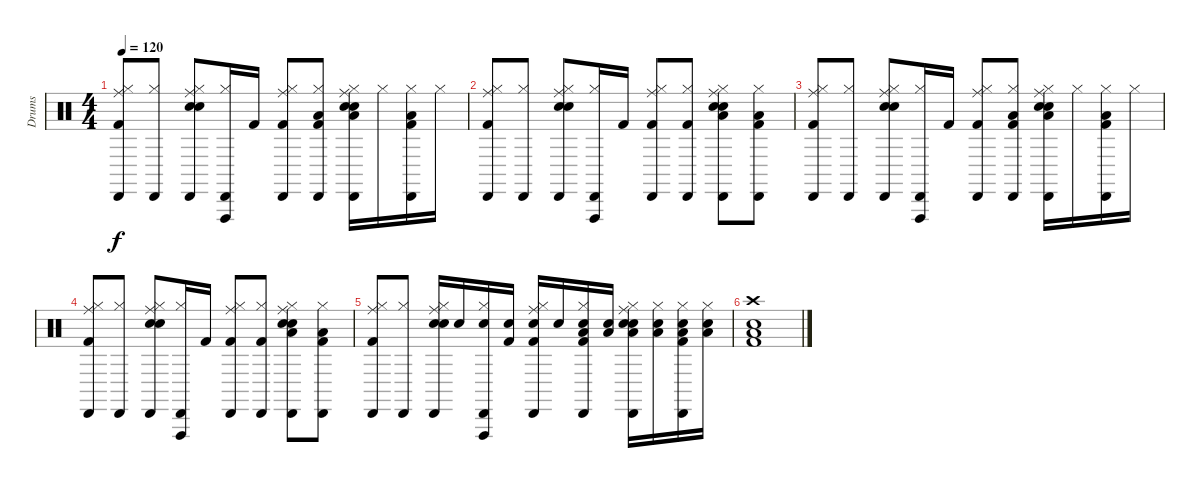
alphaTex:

\track ("Drums" "Drums") {instrument percussion}
\staff {score}
\articulation defaults
\ts (4 4)
\tempo 120
\clef neutral
\ks c
("Kick (hit) 2" "Hi-Hat (closed)" "Ride (middle)" "Cabasa (hit)").8{dy f} ("Hi-Hat (closed)" "Cabasa (hit)").8 ("Snare (hit) 2" "Hi-Hat (closed)" "Ride (middle)" "Cabasa (hit)" "Hand Clap (hit)").8 ("Hi-Hat (closed)" "Cabasa (hit)" "Vibraslap (hit)").16 "Kick (hit) 2".16 ("Kick (hit) 2" "Hi-Hat (closed)" "Ride (middle)" "Cabasa (hit)").8 ("Kick (hit) 2" "Hi-Hat (closed)" "Low Tom (hit)" "Cabasa (hit)").8 ("Snare (hit) 2" "Hi-Hat (closed)" "Ride (middle)" "Low Tom (hit)" "Cabasa (hit)" "Hand Clap (hit)").16 "Hi-Hat (closed)".16 ("Kick (hit) 2" "Hi-Hat (closed)" "Low Tom (hit)" "Cabasa (hit)").16 "Hi-Hat (closed)".16 |
("Kick (hit) 2" "Hi-Hat (closed)" "Ride (middle)" "Cabasa (hit)").8 ("Hi-Hat (closed)" "Cabasa (hit)").8 ("Snare (hit) 2" "Hi-Hat (closed)" "Ride (middle)" "Cabasa (hit)" "Hand Clap (hit)").8 ("Hi-Hat (closed)" "Cabasa (hit)" "Vibraslap (hit)").16 "Kick (hit) 2".16 ("Kick (hit) 2" "Hi-Hat (closed)" "Ride (middle)" "Cabasa (hit)").8 ("Kick (hit) 2" "Hi-Hat (closed)" "Cabasa (hit)").8 ("Snare (hit) 2" "Hi-Hat (closed)" "Ride (middle)" "Low Tom (hit)" "Cabasa (hit)" "Hand Clap (hit)").8 ("Kick (hit) 2" "Hi-Hat (closed)" "Low Tom (hit)" "Cabasa (hit)").8 |
("Kick (hit) 2" "Hi-Hat (closed)" "Ride (middle)" "Cabasa (hit)").8 ("Hi-Hat (closed)" "Cabasa (hit)").8 ("Snare (hit) 2" "Hi-Hat (closed)" "Ride (middle)" "Cabasa (hit)" "Hand Clap (hit)").8 ("Hi-Hat (closed)" "Cabasa (hit)" "Vibraslap (hit)").16 "Kick (hit) 2".16 ("Kick (hit) 2" "Hi-Hat (closed)" "Ride (middle)" "Cabasa (hit)").8 ("Kick (hit) 2" "Hi-Hat (closed)" "Low Tom (hit)" "Cabasa (hit)").8 ("Snare (hit) 2" "Hi-Hat (closed)" "Ride (middle)" "Low Tom (hit)" "Cabasa (hit)" "Hand Clap (hit)").16 "Hi-Hat (closed)".16 ("Kick (hit) 2" "Hi-Hat (closed)" "Low Tom (hit)" "Cabasa (hit)").16 "Hi-Hat (closed)".16 |
("Kick (hit) 2" "Hi-Hat (closed)" "Ride (middle)" "Cabasa (hit)").8 ("Hi-Hat (closed)" "Cabasa (hit)").8 ("Snare (hit) 2" "Hi-Hat (closed)" "Ride (middle)" "Cabasa (hit)" "Hand Clap (hit)").8 ("Hi-Hat (closed)" "Cabasa (hit)" "Vibraslap (hit)").16 "Kick (hit) 2".16 ("Kick (hit) 2" "Hi-Hat (closed)" "Ride (middle)" "Cabasa (hit)").8 ("Kick (hit) 2" "Hi-Hat (closed)" "Cabasa (hit)").8 ("Snare (hit) 2" "Hi-Hat (closed)" "Ride (middle)" "Low Tom (hit)" "Cabasa (hit)" "Hand Clap (hit)").8 ("Kick (hit) 2" "Hi-Hat (closed)" "Low Tom (hit)" "Cabasa (hit)").8 |
("Kick (hit) 2" "Hi-Hat (closed)" "Ride (middle)" "Cabasa (hit)").8 ("Hi-Hat (closed)" "Cabasa (hit)").8 ("Snare (hit) 2" "Hi-Hat (closed)" "Ride (middle)" "Cabasa (hit)" "Hand Clap (hit)").16 "Snare (hit) 2".16 ("Snare (hit) 2" "Hi-Hat (closed)" "Cabasa (hit)" "Vibraslap (hit)").16 ("Kick (hit) 2" "Snare (hit) 2").16 ("Kick (hit) 2" "Snare (hit) 2" "Hi-Hat (closed)" "Ride (middle)" "Cabasa (hit)").16 "Snare (hit) 2".16 ("Kick (hit) 2" "Snare (hit) 2" "Hi-Hat (closed)" "Low Tom (hit)" "Cabasa (hit)").16 ("Snare (hit) 2" "Low Tom (hit)").16 ("Snare (hit) 2" "Hi-Hat (closed)" "Ride (middle)" "Low Floor Tom (hit)" "Cabasa (hit)" "Hand Clap (hit)").16 ("Snare (hit) 2" "Hi-Hat (closed)" "Low Floor Tom (hit)").16 ("Kick (hit) 2" "Snare (hit) 2" "Hi-Hat (closed)" "Low Floor Tom (hit)" "Cabasa (hit)").16 ("Snare (hit) 2" "Hi-Hat (closed)" "Low Floor Tom (hit)").16 |
("Kick (hit) 2" "Snare (hit) 2" "Crash high (hit)" "Low Floor Tom (hit)").1
